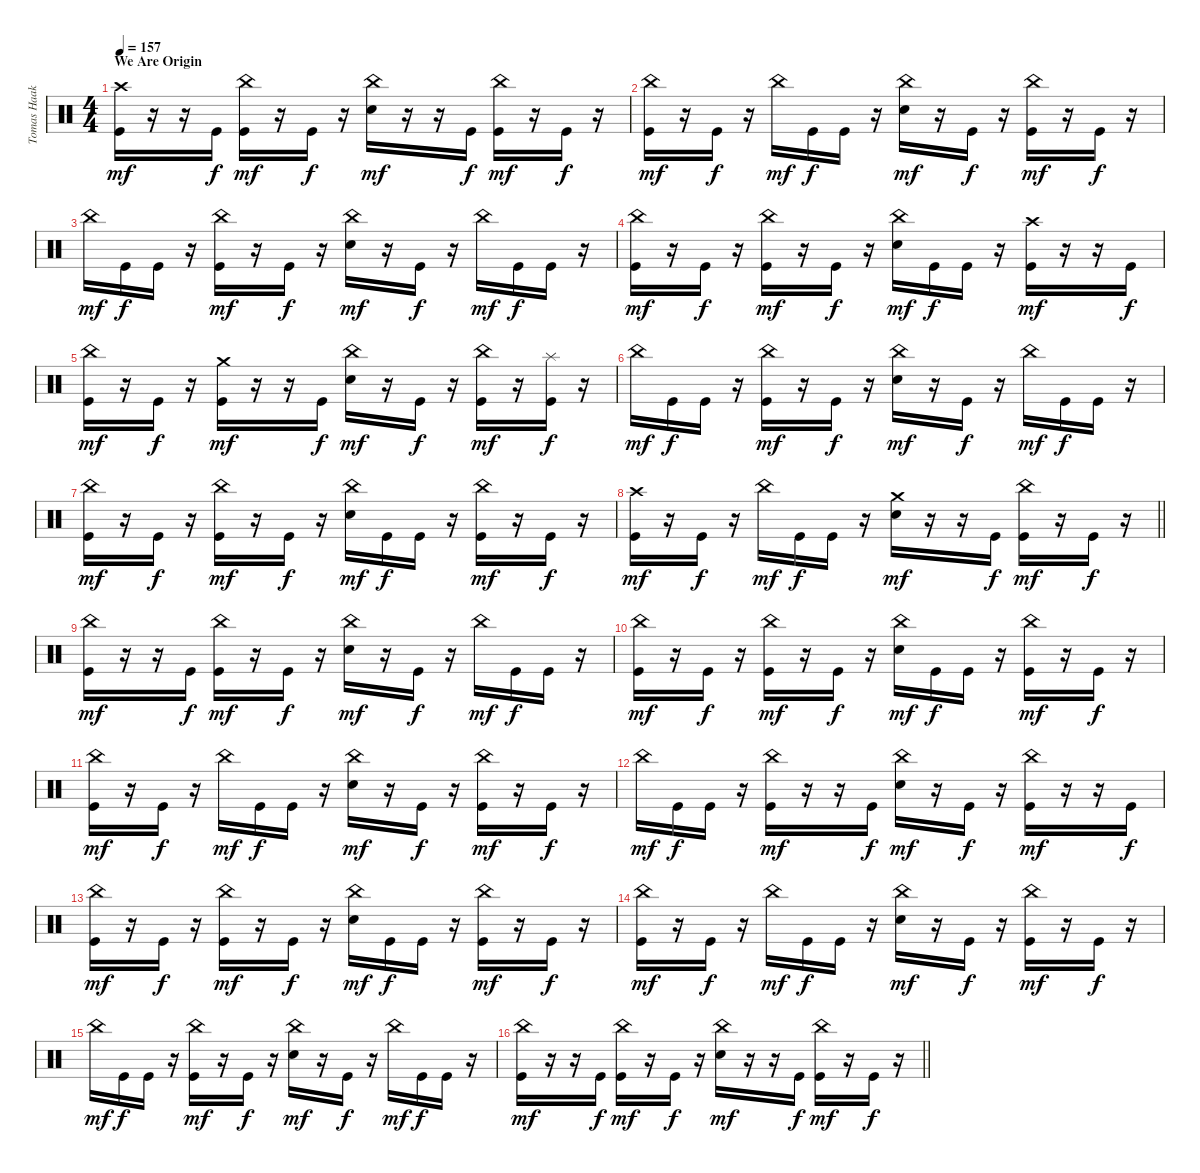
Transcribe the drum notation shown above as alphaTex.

\track ("Tomas Haake (Drums)" "Tomas Haak") {instrument percussion}
\staff {score}
\articulation defaults
\ts (4 4)
\section ("" "We Are Origin")
\tempo 157
\clef neutral
\ks c
("Crash high (hit)" "Kick (hit)").16{dy mf} r.16 r.16 "Kick (hit)".16{dy f} ("China (hit)" "Kick (hit)").16{dy mf} r.16 "Kick (hit)".16{dy f} r.16 ("China (hit)" "Electric Snare (hit)").16{dy mf} r.16 r.16 "Kick (hit)".16{dy f} ("China (hit)" "Kick (hit)").16{dy mf} r.16 "Kick (hit)".16{dy f} r.16 |
("China (hit)" "Kick (hit)").16{dy mf} r.16 "Kick (hit)".16{dy f} r.16 "China (hit)".16{dy mf} "Kick (hit)".16{dy f} "Kick (hit)".16 r.16 ("China (hit)" "Electric Snare (hit)").16{dy mf} r.16 "Kick (hit)".16{dy f} r.16 ("China (hit)" "Kick (hit)").16{dy mf} r.16 "Kick (hit)".16{dy f} r.16 |
"China (hit)".16{dy mf} "Kick (hit)".16{dy f} "Kick (hit)".16 r.16 ("China (hit)" "Kick (hit)").16{dy mf} r.16 "Kick (hit)".16{dy f} r.16 ("China (hit)" "Electric Snare (hit)").16{dy mf} r.16 "Kick (hit)".16{dy f} r.16 "China (hit)".16{dy mf} "Kick (hit)".16{dy f} "Kick (hit)".16 r.16 |
("China (hit)" "Kick (hit)").16{dy mf} r.16 "Kick (hit)".16{dy f} r.16 ("China (hit)" "Kick (hit)").16{dy mf} r.16 "Kick (hit)".16{dy f} r.16 ("China (hit)" "Electric Snare (hit)").16{dy mf} "Kick (hit)".16{dy f} "Kick (hit)".16 r.16 ("Crash high (hit)" "Kick (hit)").16{dy mf} r.16 r.16 "Kick (hit)".16{dy f} |
("China (hit)" "Kick (hit)").16{dy mf} r.16 "Kick (hit)".16{dy f} r.16 ("Crash medium (hit)" "Kick (hit)").16{dy mf} r.16 r.16 "Kick (hit)".16{dy f} ("China (hit)" "Electric Snare (hit)").16{dy mf} r.16 "Kick (hit)".16{dy f} r.16 ("China (hit)" "Kick (hit)").16{dy mf} r.16 ("Splash (hit)" "Kick (hit)").16{dy f} r.16 |
"China (hit)".16{dy mf} "Kick (hit)".16{dy f} "Kick (hit)".16 r.16 ("China (hit)" "Kick (hit)").16{dy mf} r.16 "Kick (hit)".16{dy f} r.16 ("China (hit)" "Electric Snare (hit)").16{dy mf} r.16 "Kick (hit)".16{dy f} r.16 "China (hit)".16{dy mf} "Kick (hit)".16{dy f} "Kick (hit)".16 r.16 |
("China (hit)" "Kick (hit)").16{dy mf} r.16 "Kick (hit)".16{dy f} r.16 ("China (hit)" "Kick (hit)").16{dy mf} r.16 "Kick (hit)".16{dy f} r.16 ("China (hit)" "Electric Snare (hit)").16{dy mf} "Kick (hit)".16{dy f} "Kick (hit)".16 r.16 ("China (hit)" "Kick (hit)").16{dy mf} r.16 "Kick (hit)".16{dy f} r.16 |
\barLineRight lightlight
("Crash high (hit)" "Kick (hit)").16{dy mf} r.16 "Kick (hit)".16{dy f} r.16 "China (hit)".16{dy mf} "Kick (hit)".16{dy f} "Kick (hit)".16 r.16 ("Crash medium (hit)" "Electric Snare (hit)").16{dy mf} r.16 r.16 "Kick (hit)".16{dy f} ("China (hit)" "Kick (hit)").16{dy mf} r.16 "Kick (hit)".16{dy f} r.16 |
("China (hit)" "Kick (hit)").16{dy mf} r.16 r.16 "Kick (hit)".16{dy f} ("China (hit)" "Kick (hit)").16{dy mf} r.16 "Kick (hit)".16{dy f} r.16 ("China (hit)" "Electric Snare (hit)").16{dy mf} r.16 "Kick (hit)".16{dy f} r.16 "China (hit)".16{dy mf} "Kick (hit)".16{dy f} "Kick (hit)".16 r.16 |
("China (hit)" "Kick (hit)").16{dy mf} r.16 "Kick (hit)".16{dy f} r.16 ("China (hit)" "Kick (hit)").16{dy mf} r.16 "Kick (hit)".16{dy f} r.16 ("China (hit)" "Electric Snare (hit)").16{dy mf} "Kick (hit)".16{dy f} "Kick (hit)".16 r.16 ("China (hit)" "Kick (hit)").16{dy mf} r.16 "Kick (hit)".16{dy f} r.16 |
("China (hit)" "Kick (hit)").16{dy mf} r.16 "Kick (hit)".16{dy f} r.16 "China (hit)".16{dy mf} "Kick (hit)".16{dy f} "Kick (hit)".16 r.16 ("China (hit)" "Electric Snare (hit)").16{dy mf} r.16 "Kick (hit)".16{dy f} r.16 ("China (hit)" "Kick (hit)").16{dy mf} r.16 "Kick (hit)".16{dy f} r.16 |
"China (hit)".16{dy mf} "Kick (hit)".16{dy f} "Kick (hit)".16 r.16 ("China (hit)" "Kick (hit)").16{dy mf} r.16 r.16 "Kick (hit)".16{dy f} ("China (hit)" "Electric Snare (hit)").16{dy mf} r.16 "Kick (hit)".16{dy f} r.16 ("China (hit)" "Kick (hit)").16{dy mf} r.16 r.16 "Kick (hit)".16{dy f} |
("China (hit)" "Kick (hit)").16{dy mf} r.16 "Kick (hit)".16{dy f} r.16 ("China (hit)" "Kick (hit)").16{dy mf} r.16 "Kick (hit)".16{dy f} r.16 ("China (hit)" "Electric Snare (hit)").16{dy mf} "Kick (hit)".16{dy f} "Kick (hit)".16 r.16 ("China (hit)" "Kick (hit)").16{dy mf} r.16 "Kick (hit)".16{dy f} r.16 |
("China (hit)" "Kick (hit)").16{dy mf} r.16 "Kick (hit)".16{dy f} r.16 "China (hit)".16{dy mf} "Kick (hit)".16{dy f} "Kick (hit)".16 r.16 ("China (hit)" "Electric Snare (hit)").16{dy mf} r.16 "Kick (hit)".16{dy f} r.16 ("China (hit)" "Kick (hit)").16{dy mf} r.16 "Kick (hit)".16{dy f} r.16 |
"China (hit)".16{dy mf} "Kick (hit)".16{dy f} "Kick (hit)".16 r.16 ("China (hit)" "Kick (hit)").16{dy mf} r.16 "Kick (hit)".16{dy f} r.16 ("China (hit)" "Electric Snare (hit)").16{dy mf} r.16 "Kick (hit)".16{dy f} r.16 "China (hit)".16{dy mf} "Kick (hit)".16{dy f} "Kick (hit)".16 r.16 |
\barLineRight lightlight
("China (hit)" "Kick (hit)").16{dy mf} r.16 r.16 "Kick (hit)".16{dy f} ("China (hit)" "Kick (hit)").16{dy mf} r.16 "Kick (hit)".16{dy f} r.16 ("China (hit)" "Electric Snare (hit)").16{dy mf} r.16 r.16 "Kick (hit)".16{dy f} ("China (hit)" "Kick (hit)").16{dy mf} r.16 "Kick (hit)".16{dy f} r.16
